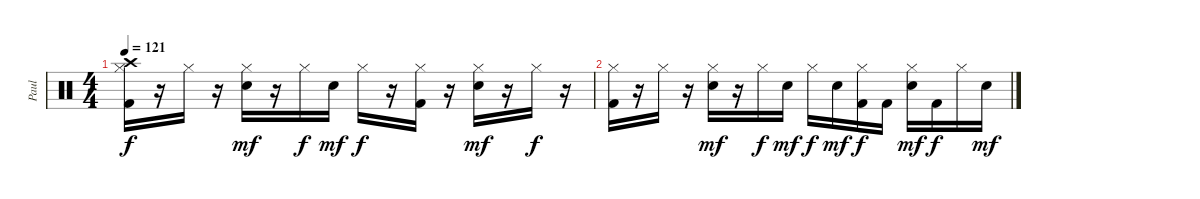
\track ("Paul" "Paul") {instrument percussion}
\staff {score}
\articulation defaults
\ts (4 4)
\tempo 121
\clef neutral
\ks c
("Hi-Hat (closed)" "Crash high (hit)" "Kick (hit) 2").16{dy f} r.16 "Hi-Hat (closed)".16 r.16 ("Hi-Hat (closed)" "Snare (hit) 2").16{dy mf} r.16 "Hi-Hat (closed)".16{dy f} "Snare (hit) 2".16{dy mf} "Hi-Hat (closed)".16{dy f} r.16 ("Hi-Hat (closed)" "Kick (hit) 2").16 r.16 ("Hi-Hat (closed)" "Snare (hit) 2").16{dy mf} r.16 "Hi-Hat (closed)".16{dy f} r.16 |
("Hi-Hat (closed)" "Kick (hit) 2").16 r.16 "Hi-Hat (closed)".16 r.16 ("Hi-Hat (closed)" "Snare (hit) 2").16{dy mf} r.16 "Hi-Hat (closed)".16{dy f} "Snare (hit) 2".16{dy mf} "Hi-Hat (closed)".16{dy f} "Snare (hit) 2".16{dy mf} ("Hi-Hat (closed)" "Kick (hit) 2").16{dy f} "Kick (hit) 2".16 ("Hi-Hat (closed)" "Snare (hit) 2").16{dy mf} "Kick (hit) 2".16{dy f} "Hi-Hat (closed)".16 "Snare (hit) 2".16{dy mf}
